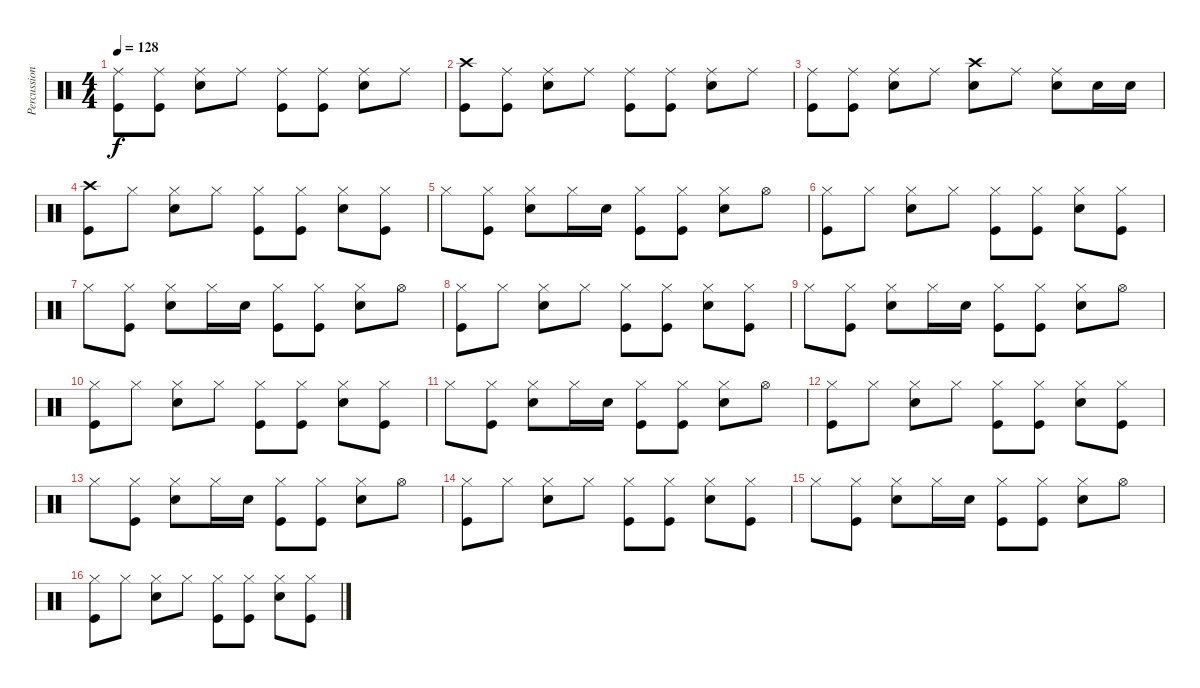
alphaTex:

\track ("Percussion" "Percussion") {instrument percussion}
\staff {score}
\articulation defaults
\ts (4 4)
\tempo 128
\clef neutral
\ks c
("Ride (middle)" "Kick (hit)").8{dy f} ("Ride (middle)" "Kick (hit)").8 ("Ride (middle)" "Snare (hit) 2").8 "Ride (middle)".8 ("Ride (middle)" "Kick (hit)").8 ("Ride (middle)" "Kick (hit)").8 ("Ride (middle)" "Snare (hit) 2").8 "Ride (middle)".8 |
("Crash high (hit)" "Kick (hit)").8 ("Ride (middle)" "Kick (hit)").8 ("Ride (middle)" "Snare (hit) 2").8 "Ride (middle)".8 ("Ride (middle)" "Kick (hit)").8 ("Ride (middle)" "Kick (hit)").8 ("Ride (middle)" "Snare (hit) 2").8 "Ride (middle)".8 |
("Ride (middle)" "Kick (hit)").8 ("Ride (middle)" "Kick (hit)").8 ("Ride (middle)" "Snare (hit) 2").8 "Ride (middle)".8 ("Crash high (hit)" "Snare (hit) 2").8 "Ride (middle)".8 ("Ride (middle)" "Snare (hit) 2").8 "Snare (hit) 2".16 "Snare (hit) 2".16 |
("Crash high (hit)" "Kick (hit)").8 "Hi-Hat (closed)".8 ("Hi-Hat (closed)" "Snare (hit) 2").8 "Hi-Hat (closed)".8 ("Hi-Hat (closed)" "Kick (hit)").8 ("Hi-Hat (closed)" "Kick (hit)").8 ("Hi-Hat (closed)" "Snare (hit) 2").8 ("Hi-Hat (closed)" "Kick (hit)").8 |
"Hi-Hat (closed)".8 ("Hi-Hat (closed)" "Kick (hit)").8 ("Hi-Hat (closed)" "Snare (hit) 2").8 "Hi-Hat (closed)".16 "Snare (hit) 2".16 ("Hi-Hat (closed)" "Kick (hit)").8 ("Hi-Hat (closed)" "Kick (hit)").8 ("Hi-Hat (closed)" "Snare (hit) 2").8 "Hi-Hat (open)".8 |
("Hi-Hat (closed)" "Kick (hit)").8 "Hi-Hat (closed)".8 ("Hi-Hat (closed)" "Snare (hit) 2").8 "Hi-Hat (closed)".8 ("Hi-Hat (closed)" "Kick (hit)").8 ("Hi-Hat (closed)" "Kick (hit)").8 ("Hi-Hat (closed)" "Snare (hit) 2").8 ("Hi-Hat (closed)" "Kick (hit)").8 |
"Hi-Hat (closed)".8 ("Hi-Hat (closed)" "Kick (hit)").8 ("Hi-Hat (closed)" "Snare (hit) 2").8 "Hi-Hat (closed)".16 "Snare (hit) 2".16 ("Hi-Hat (closed)" "Kick (hit)").8 ("Hi-Hat (closed)" "Kick (hit)").8 ("Hi-Hat (closed)" "Snare (hit) 2").8 "Hi-Hat (open)".8 |
("Hi-Hat (closed)" "Kick (hit)").8 "Hi-Hat (closed)".8 ("Hi-Hat (closed)" "Snare (hit) 2").8 "Hi-Hat (closed)".8 ("Hi-Hat (closed)" "Kick (hit)").8 ("Hi-Hat (closed)" "Kick (hit)").8 ("Hi-Hat (closed)" "Snare (hit) 2").8 ("Hi-Hat (closed)" "Kick (hit)").8 |
"Hi-Hat (closed)".8 ("Hi-Hat (closed)" "Kick (hit)").8 ("Hi-Hat (closed)" "Snare (hit) 2").8 "Hi-Hat (closed)".16 "Snare (hit) 2".16 ("Hi-Hat (closed)" "Kick (hit)").8 ("Hi-Hat (closed)" "Kick (hit)").8 ("Hi-Hat (closed)" "Snare (hit) 2").8 "Hi-Hat (open)".8 |
("Hi-Hat (closed)" "Kick (hit)").8 "Hi-Hat (closed)".8 ("Hi-Hat (closed)" "Snare (hit) 2").8 "Hi-Hat (closed)".8 ("Hi-Hat (closed)" "Kick (hit)").8 ("Hi-Hat (closed)" "Kick (hit)").8 ("Hi-Hat (closed)" "Snare (hit) 2").8 ("Hi-Hat (closed)" "Kick (hit)").8 |
"Hi-Hat (closed)".8 ("Hi-Hat (closed)" "Kick (hit)").8 ("Hi-Hat (closed)" "Snare (hit) 2").8 "Hi-Hat (closed)".16 "Snare (hit) 2".16 ("Hi-Hat (closed)" "Kick (hit)").8 ("Hi-Hat (closed)" "Kick (hit)").8 ("Hi-Hat (closed)" "Snare (hit) 2").8 "Hi-Hat (open)".8 |
("Hi-Hat (closed)" "Kick (hit)").8 "Hi-Hat (closed)".8 ("Hi-Hat (closed)" "Snare (hit) 2").8 "Hi-Hat (closed)".8 ("Hi-Hat (closed)" "Kick (hit)").8 ("Hi-Hat (closed)" "Kick (hit)").8 ("Hi-Hat (closed)" "Snare (hit) 2").8 ("Hi-Hat (closed)" "Kick (hit)").8 |
"Hi-Hat (closed)".8 ("Hi-Hat (closed)" "Kick (hit)").8 ("Hi-Hat (closed)" "Snare (hit) 2").8 "Hi-Hat (closed)".16 "Snare (hit) 2".16 ("Hi-Hat (closed)" "Kick (hit)").8 ("Hi-Hat (closed)" "Kick (hit)").8 ("Hi-Hat (closed)" "Snare (hit) 2").8 "Hi-Hat (open)".8 |
("Hi-Hat (closed)" "Kick (hit)").8 "Hi-Hat (closed)".8 ("Hi-Hat (closed)" "Snare (hit) 2").8 "Hi-Hat (closed)".8 ("Hi-Hat (closed)" "Kick (hit)").8 ("Hi-Hat (closed)" "Kick (hit)").8 ("Hi-Hat (closed)" "Snare (hit) 2").8 ("Hi-Hat (closed)" "Kick (hit)").8 |
"Hi-Hat (closed)".8 ("Hi-Hat (closed)" "Kick (hit)").8 ("Hi-Hat (closed)" "Snare (hit) 2").8 "Hi-Hat (closed)".16 "Snare (hit) 2".16 ("Hi-Hat (closed)" "Kick (hit)").8 ("Hi-Hat (closed)" "Kick (hit)").8 ("Hi-Hat (closed)" "Snare (hit) 2").8 "Hi-Hat (open)".8 |
("Hi-Hat (closed)" "Kick (hit)").8 "Hi-Hat (closed)".8 ("Hi-Hat (closed)" "Snare (hit) 2").8 "Hi-Hat (closed)".8 ("Hi-Hat (closed)" "Kick (hit)").8 ("Hi-Hat (closed)" "Kick (hit)").8 ("Hi-Hat (closed)" "Snare (hit) 2").8 ("Hi-Hat (closed)" "Kick (hit)").8
